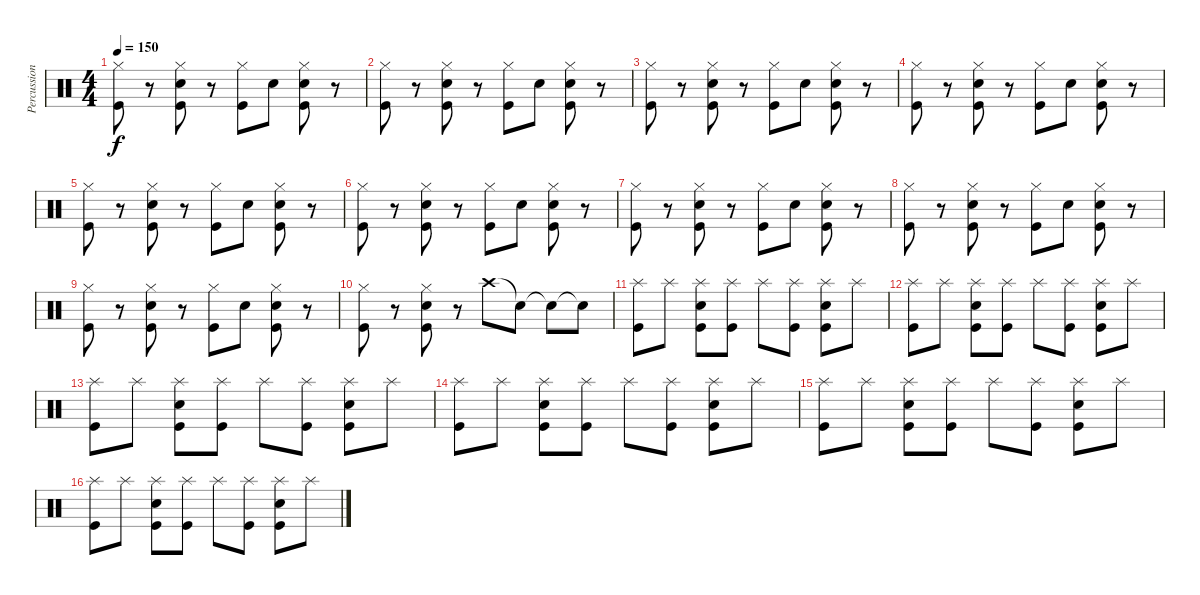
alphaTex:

\track ("Percussion" "Percussion") {instrument percussion}
\staff {score}
\articulation defaults
\ts (4 4)
\tempo 150
\clef neutral
\ks c
("Hi-Hat (closed)" "Kick (hit)").8{dy f} r.8 ("Hi-Hat (closed)" "Snare (hit) 2" "Kick (hit)").8 r.8 ("Hi-Hat (closed)" "Kick (hit)").8 "Snare (hit) 2".8 ("Hi-Hat (closed)" "Snare (hit) 2" "Kick (hit)").8 r.8 |
("Hi-Hat (closed)" "Kick (hit)").8 r.8 ("Hi-Hat (closed)" "Snare (hit) 2" "Kick (hit)").8 r.8 ("Hi-Hat (closed)" "Kick (hit)").8 "Snare (hit) 2".8 ("Hi-Hat (closed)" "Snare (hit) 2" "Kick (hit)").8 r.8 |
("Hi-Hat (closed)" "Kick (hit)").8 r.8 ("Hi-Hat (closed)" "Snare (hit) 2" "Kick (hit)").8 r.8 ("Hi-Hat (closed)" "Kick (hit)").8 "Snare (hit) 2".8 ("Hi-Hat (closed)" "Snare (hit) 2" "Kick (hit)").8 r.8 |
("Hi-Hat (closed)" "Kick (hit)").8 r.8 ("Hi-Hat (closed)" "Snare (hit) 2" "Kick (hit)").8 r.8 ("Hi-Hat (closed)" "Kick (hit)").8 "Snare (hit) 2".8 ("Hi-Hat (closed)" "Snare (hit) 2" "Kick (hit)").8 r.8 |
("Hi-Hat (closed)" "Kick (hit)").8 r.8 ("Hi-Hat (closed)" "Snare (hit) 2" "Kick (hit)").8 r.8 ("Hi-Hat (closed)" "Kick (hit)").8 "Snare (hit) 2".8 ("Hi-Hat (closed)" "Snare (hit) 2" "Kick (hit)").8 r.8 |
("Hi-Hat (closed)" "Kick (hit)").8 r.8 ("Hi-Hat (closed)" "Snare (hit) 2" "Kick (hit)").8 r.8 ("Hi-Hat (closed)" "Kick (hit)").8 "Snare (hit) 2".8 ("Hi-Hat (closed)" "Snare (hit) 2" "Kick (hit)").8 r.8 |
("Hi-Hat (closed)" "Kick (hit)").8 r.8 ("Hi-Hat (closed)" "Snare (hit) 2" "Kick (hit)").8 r.8 ("Hi-Hat (closed)" "Kick (hit)").8 "Snare (hit) 2".8 ("Hi-Hat (closed)" "Snare (hit) 2" "Kick (hit)").8 r.8 |
("Hi-Hat (closed)" "Kick (hit)").8 r.8 ("Hi-Hat (closed)" "Snare (hit) 2" "Kick (hit)").8 r.8 ("Hi-Hat (closed)" "Kick (hit)").8 "Snare (hit) 2".8 ("Hi-Hat (closed)" "Snare (hit) 2" "Kick (hit)").8 r.8 |
("Hi-Hat (closed)" "Kick (hit)").8 r.8 ("Hi-Hat (closed)" "Snare (hit) 2" "Kick (hit)").8 r.8 ("Hi-Hat (closed)" "Kick (hit)").8 "Snare (hit) 2".8 ("Hi-Hat (closed)" "Snare (hit) 2" "Kick (hit)").8 r.8 |
("Hi-Hat (closed)" "Kick (hit)").8 r.8 ("Hi-Hat (closed)" "Snare (hit) 2" "Kick (hit)").8 r.8 "Crash high (hit)".8 "Snare (hit)"{t}.8 "Snare (hit)"{t}.8 "Snare (hit)"{t}.8 |
("Splash (hit)" "Kick (hit)").8 "Splash (hit)".8 ("Splash (hit)" "Snare (hit) 2" "Kick (hit)").8 ("Splash (hit)" "Kick (hit)").8 "Splash (hit)".8 ("Splash (hit)" "Kick (hit)").8 ("Splash (hit)" "Snare (hit) 2" "Kick (hit)").8 "Splash (hit)".8 |
("Splash (hit)" "Kick (hit)").8 "Splash (hit)".8 ("Splash (hit)" "Snare (hit) 2" "Kick (hit)").8 ("Splash (hit)" "Kick (hit)").8 "Splash (hit)".8 ("Splash (hit)" "Kick (hit)").8 ("Splash (hit)" "Snare (hit) 2" "Kick (hit)").8 "Splash (hit)".8 |
("Splash (hit)" "Kick (hit)").8 "Splash (hit)".8 ("Splash (hit)" "Snare (hit) 2" "Kick (hit)").8 ("Splash (hit)" "Kick (hit)").8 "Splash (hit)".8 ("Splash (hit)" "Kick (hit)").8 ("Splash (hit)" "Snare (hit) 2" "Kick (hit)").8 "Splash (hit)".8 |
("Splash (hit)" "Kick (hit)").8 "Splash (hit)".8 ("Splash (hit)" "Snare (hit) 2" "Kick (hit)").8 ("Splash (hit)" "Kick (hit)").8 "Splash (hit)".8 ("Splash (hit)" "Kick (hit)").8 ("Splash (hit)" "Snare (hit) 2" "Kick (hit)").8 "Splash (hit)".8 |
("Splash (hit)" "Kick (hit)").8 "Splash (hit)".8 ("Splash (hit)" "Snare (hit) 2" "Kick (hit)").8 ("Splash (hit)" "Kick (hit)").8 "Splash (hit)".8 ("Splash (hit)" "Kick (hit)").8 ("Splash (hit)" "Snare (hit) 2" "Kick (hit)").8 "Splash (hit)".8 |
("Splash (hit)" "Kick (hit)").8 "Splash (hit)".8 ("Splash (hit)" "Snare (hit) 2" "Kick (hit)").8 ("Splash (hit)" "Kick (hit)").8 "Splash (hit)".8 ("Splash (hit)" "Kick (hit)").8 ("Splash (hit)" "Snare (hit) 2" "Kick (hit)").8 "Splash (hit)".8
